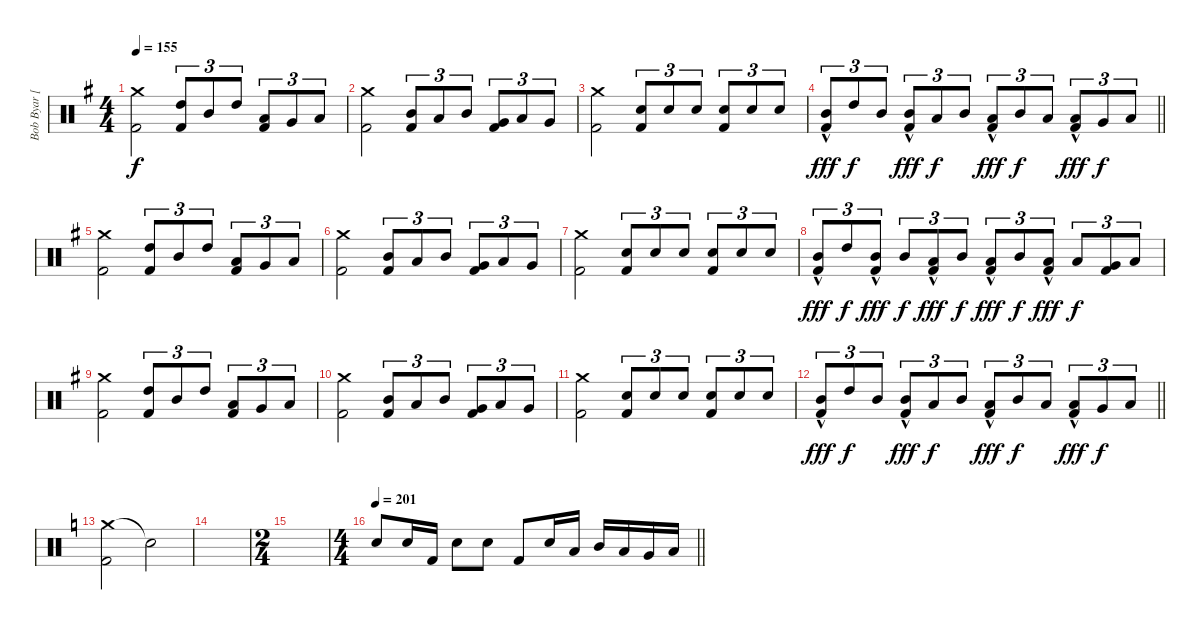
\track ("Bob Byar [Drums]" "Bob Byar [") {instrument percussion}
\staff {score}
\articulation defaults
\ts (4 4)
\tempo 155
\clef neutral
\ks eminor
("Crash medium (hit)" "Kick (hit) 2").2{dy f} ("High Tom (hit)" "Kick (hit) 2").8{tu (3 2)} "Mid Tom (hit)".8{tu (3 2)} "High Tom (hit)".8{tu (3 2)} ("Low Tom (hit)" "Kick (hit) 2").8{tu (3 2)} "Very Low Tom (hit)".8{tu (3 2)} "Low Tom (hit)".8{tu (3 2)} |
("Crash medium (hit)" "Kick (hit) 2").2 ("Mid Tom (hit)" "Kick (hit) 2").8{tu (3 2)} "Low Tom (hit)".8{tu (3 2)} "Mid Tom (hit)".8{tu (3 2)} ("Very Low Tom (hit)" "Kick (hit) 2").8{tu (3 2)} "Low Tom (hit)".8{tu (3 2)} "Very Low Tom (hit)".8{tu (3 2)} |
("Crash medium (hit)" "Kick (hit) 2").2 ("Electric Snare (hit)" "Kick (hit) 2").8{tu (3 2)} "Electric Snare (hit)".8{tu (3 2)} "Electric Snare (hit)".8{tu (3 2)} ("Electric Snare (hit)" "Kick (hit) 2").8{tu (3 2)} "Electric Snare (hit)".8{tu (3 2)} "Electric Snare (hit)".8{tu (3 2)} |
\barLineRight lightlight
("Mid Tom (hit)" "Kick (hit) 2"{hac}).8{tu (3 2) dy fff} "High Tom (hit)".8{tu (3 2) dy f} "Mid Tom (hit)".8{tu (3 2)} ("Mid Tom (hit)" "Kick (hit) 2"{hac}).8{tu (3 2) dy fff} "Low Tom (hit)".8{tu (3 2) dy f} "Mid Tom (hit)".8{tu (3 2)} ("Low Tom (hit)" "Kick (hit) 2"{hac}).8{tu (3 2) dy fff} "Mid Tom (hit)".8{tu (3 2) dy f} "Low Tom (hit)".8{tu (3 2)} ("Low Tom (hit)" "Kick (hit) 2"{hac}).8{tu (3 2) dy fff} "Very Low Tom (hit)".8{tu (3 2) dy f} "Low Tom (hit)".8{tu (3 2)} |
("Crash medium (hit)" "Kick (hit) 2").2 ("High Tom (hit)" "Kick (hit) 2").8{tu (3 2)} "Mid Tom (hit)".8{tu (3 2)} "High Tom (hit)".8{tu (3 2)} ("Low Tom (hit)" "Kick (hit) 2").8{tu (3 2)} "Very Low Tom (hit)".8{tu (3 2)} "Low Tom (hit)".8{tu (3 2)} |
("Crash medium (hit)" "Kick (hit) 2").2 ("Mid Tom (hit)" "Kick (hit) 2").8{tu (3 2)} "Low Tom (hit)".8{tu (3 2)} "Mid Tom (hit)".8{tu (3 2)} ("Very Low Tom (hit)" "Kick (hit) 2").8{tu (3 2)} "Low Tom (hit)".8{tu (3 2)} "Very Low Tom (hit)".8{tu (3 2)} |
("Crash medium (hit)" "Kick (hit) 2").2 ("Electric Snare (hit)" "Kick (hit) 2").8{tu (3 2)} "Electric Snare (hit)".8{tu (3 2)} "Electric Snare (hit)".8{tu (3 2)} ("Electric Snare (hit)" "Kick (hit) 2").8{tu (3 2)} "Electric Snare (hit)".8{tu (3 2)} "Electric Snare (hit)".8{tu (3 2)} |
("Mid Tom (hit)" "Kick (hit) 2"{hac}).8{tu (3 2) dy fff} "High Tom (hit)".8{tu (3 2) dy f} ("Mid Tom (hit)" "Kick (hit) 2"{hac}).8{tu (3 2) dy fff} "Mid Tom (hit)".8{tu (3 2) dy f} ("Low Tom (hit)" "Kick (hit) 2"{hac}).8{tu (3 2) dy fff} "Mid Tom (hit)".8{tu (3 2) dy f} ("Low Tom (hit)" "Kick (hit) 2"{hac}).8{tu (3 2) dy fff} "Mid Tom (hit)".8{tu (3 2) dy f} ("Low Tom (hit)" "Kick (hit) 2"{hac}).8{tu (3 2) dy fff} "Low Tom (hit)".8{tu (3 2) dy f} ("Very Low Tom (hit)" "Kick (hit) 2").8{tu (3 2)} "Low Tom (hit)".8{tu (3 2)} |
("Crash medium (hit)" "Kick (hit) 2").2 ("High Tom (hit)" "Kick (hit) 2").8{tu (3 2)} "Mid Tom (hit)".8{tu (3 2)} "High Tom (hit)".8{tu (3 2)} ("Low Tom (hit)" "Kick (hit) 2").8{tu (3 2)} "Very Low Tom (hit)".8{tu (3 2)} "Low Tom (hit)".8{tu (3 2)} |
("Crash medium (hit)" "Kick (hit) 2").2 ("Mid Tom (hit)" "Kick (hit) 2").8{tu (3 2)} "Low Tom (hit)".8{tu (3 2)} "Mid Tom (hit)".8{tu (3 2)} ("Very Low Tom (hit)" "Kick (hit) 2").8{tu (3 2)} "Low Tom (hit)".8{tu (3 2)} "Very Low Tom (hit)".8{tu (3 2)} |
("Crash medium (hit)" "Kick (hit) 2").2 ("Electric Snare (hit)" "Kick (hit) 2").8{tu (3 2)} "Electric Snare (hit)".8{tu (3 2)} "Electric Snare (hit)".8{tu (3 2)} ("Electric Snare (hit)" "Kick (hit) 2").8{tu (3 2)} "Electric Snare (hit)".8{tu (3 2)} "Electric Snare (hit)".8{tu (3 2)} |
\barLineRight lightlight
("Mid Tom (hit)" "Kick (hit) 2"{hac}).8{tu (3 2) dy fff} "High Tom (hit)".8{tu (3 2) dy f} "Mid Tom (hit)".8{tu (3 2)} ("Mid Tom (hit)" "Kick (hit) 2"{hac}).8{tu (3 2) dy fff} "Low Tom (hit)".8{tu (3 2) dy f} "Mid Tom (hit)".8{tu (3 2)} ("Low Tom (hit)" "Kick (hit) 2"{hac}).8{tu (3 2) dy fff} "Mid Tom (hit)".8{tu (3 2) dy f} "Low Tom (hit)".8{tu (3 2)} ("Low Tom (hit)" "Kick (hit) 2"{hac}).8{tu (3 2) dy fff} "Very Low Tom (hit)".8{tu (3 2) dy f} "Low Tom (hit)".8{tu (3 2)} |
\ks c
("Crash medium (hit)" "Kick (hit) 2").2 "Snare (hit)"{t}.2{volume 0} |
|
\ts (2 4)
|
\ts (4 4)
\tempo 201
\barLineRight lightlight "Electric Snare (hit)".8{volume 16} "Electric Snare (hit)".16 "Kick (hit) 2".16 "Electric Snare (hit)".8 "Electric Snare (hit)".8 "Kick (hit) 2".8 "Electric Snare (hit)".16 "Low Tom (hit)".16 "Mid Tom (hit)".16 "Low Tom (hit)".16 "Very Low Tom (hit)".16 "Low Floor Tom (hit)".16
